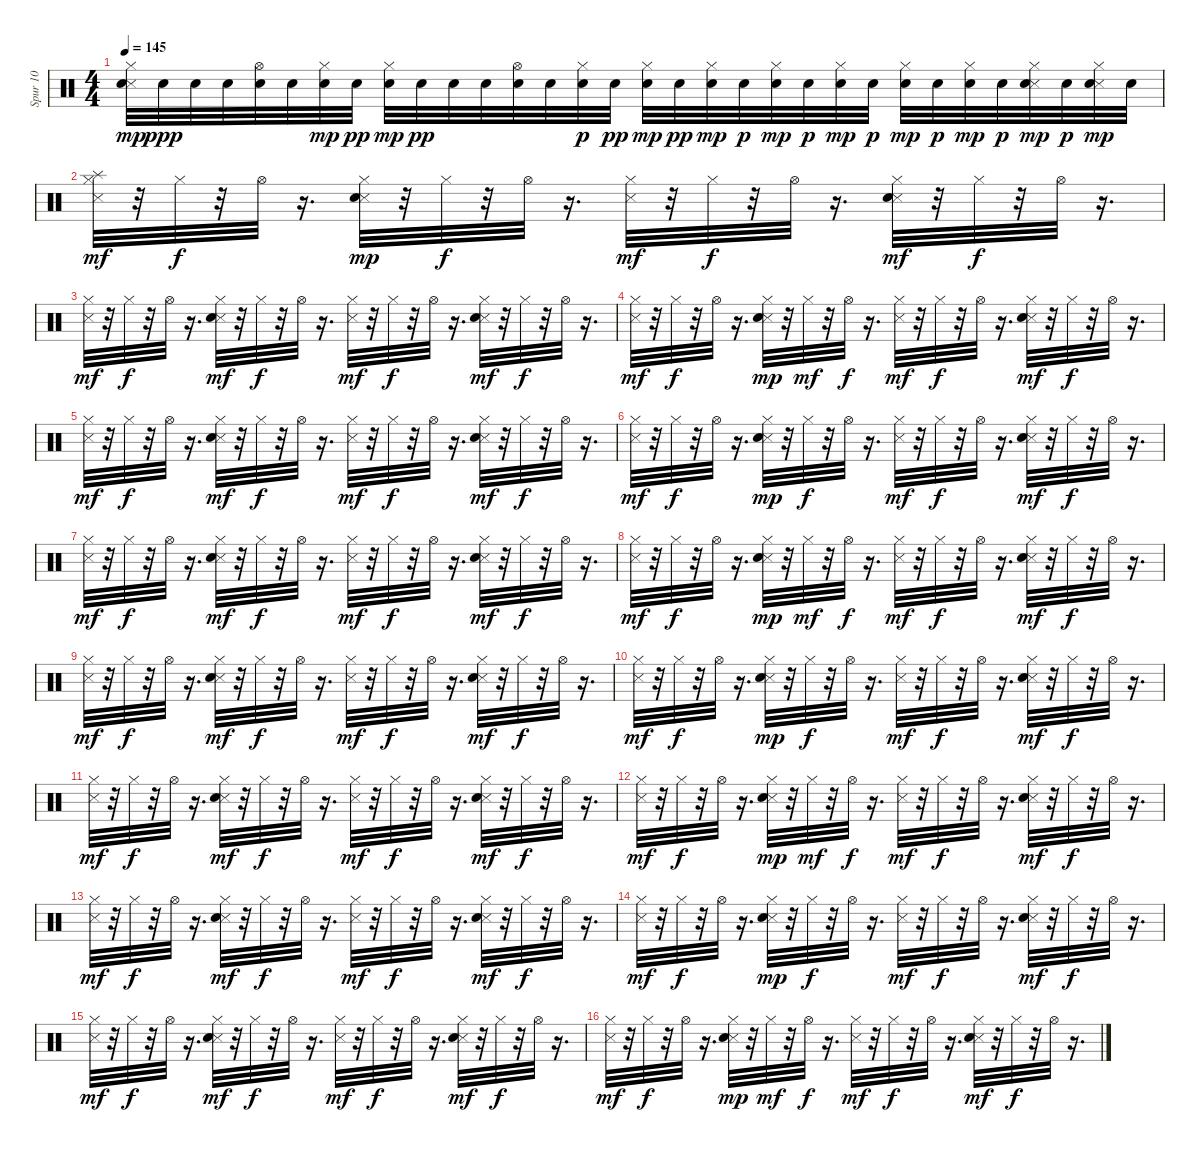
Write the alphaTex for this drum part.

\track ("Spur 10" "Spur 10") {instrument percussion}
\staff {score}
\articulation defaults
\ts (4 4)
\tempo 145
\clef neutral
\ks c
("Metronome (hit)" "Snare (hit) 2" "Hi-Hat (closed)").32{dy mp} "Snare (hit) 2".32{dy ppp} "Snare (hit) 2".32 "Snare (hit) 2".32 ("Snare (hit) 2" "Hi-Hat (open)").32 "Snare (hit) 2".32 ("Snare (hit) 2" "Hi-Hat (closed)").32{dy mp} "Snare (hit) 2".32{dy pp} ("Snare (hit) 2" "Hi-Hat (closed)").32{dy mp} "Snare (hit) 2".32{dy pp} "Snare (hit) 2".32 "Snare (hit) 2".32 ("Snare (hit) 2" "Hi-Hat (open)").32 "Snare (hit) 2".32 ("Snare (hit) 2" "Hi-Hat (closed)").32{dy p} "Snare (hit) 2".32{dy pp} ("Snare (hit) 2" "Hi-Hat (closed)").32{dy mp} "Snare (hit) 2".32{dy pp} ("Snare (hit) 2" "Hi-Hat (closed)").32{dy mp} "Snare (hit) 2".32{dy p} ("Snare (hit) 2" "Hi-Hat (closed)").32{dy mp} "Snare (hit) 2".32{dy p} ("Snare (hit) 2" "Hi-Hat (closed)").32{dy mp} "Snare (hit) 2".32{dy p} ("Snare (hit) 2" "Hi-Hat (closed)").32{dy mp} "Snare (hit) 2".32{dy p} ("Snare (hit) 2" "Hi-Hat (closed)").32{dy mp} "Snare (hit) 2".32{dy p} ("Metronome (hit)" "Snare (hit) 2" "Hi-Hat (closed)").32{dy mp} "Snare (hit) 2".32{dy p} ("Metronome (hit)" "Snare (hit) 2" "Hi-Hat (closed)").32{dy mp} "Snare (hit) 2".32 |
("Splash (hit)" "Metronome (hit)" "Hi-Hat (closed)").32{dy mf} r.32 "Hi-Hat (closed)".32{dy f} r.32 "Hi-Hat (open)".32 r.16{d} ("Metronome (hit)" "Snare (hit) 2" "Hi-Hat (closed)").32{dy mp} r.32 "Hi-Hat (closed)".32{dy f} r.32 "Hi-Hat (open)".32 r.16{d} ("Metronome (hit)" "Hi-Hat (closed)").32{dy mf} r.32 "Hi-Hat (closed)".32{dy f} r.32 "Hi-Hat (open)".32 r.16{d} ("Metronome (hit)" "Snare (hit) 2" "Hi-Hat (closed)").32{dy mf} r.32 "Hi-Hat (closed)".32{dy f} r.32 "Hi-Hat (open)".32 r.16{d} |
("Metronome (hit)" "Hi-Hat (closed)").32{dy mf} r.32 "Hi-Hat (closed)".32{dy f} r.32 "Hi-Hat (open)".32 r.16{d} ("Metronome (hit)" "Snare (hit) 2" "Hi-Hat (closed)").32{dy mf} r.32 "Hi-Hat (closed)".32{dy f} r.32 "Hi-Hat (open)".32 r.16{d} ("Metronome (hit)" "Hi-Hat (closed)").32{dy mf} r.32 "Hi-Hat (closed)".32{dy f} r.32 "Hi-Hat (open)".32 r.16{d} ("Metronome (hit)" "Snare (hit) 2" "Hi-Hat (closed)").32{dy mf} r.32 "Hi-Hat (closed)".32{dy f} r.32 "Hi-Hat (open)".32 r.16{d} |
("Metronome (hit)" "Hi-Hat (closed)").32{dy mf} r.32 "Hi-Hat (closed)".32{dy f} r.32 "Hi-Hat (open)".32 r.16{d} ("Metronome (hit)" "Snare (hit) 2" "Hi-Hat (closed)").32{dy mp} r.32 "Hi-Hat (closed)".32{dy mf} r.32 "Hi-Hat (open)".32{dy f} r.16{d} ("Metronome (hit)" "Hi-Hat (closed)").32{dy mf} r.32 "Hi-Hat (closed)".32{dy f} r.32 "Hi-Hat (open)".32 r.16{d} ("Metronome (hit)" "Snare (hit) 2" "Hi-Hat (closed)").32{dy mf} r.32 "Hi-Hat (closed)".32{dy f} r.32 "Hi-Hat (open)".32 r.16{d} |
("Metronome (hit)" "Hi-Hat (closed)").32{dy mf} r.32 "Hi-Hat (closed)".32{dy f} r.32 "Hi-Hat (open)".32 r.16{d} ("Metronome (hit)" "Snare (hit) 2" "Hi-Hat (closed)").32{dy mf} r.32 "Hi-Hat (closed)".32{dy f} r.32 "Hi-Hat (open)".32 r.16{d} ("Metronome (hit)" "Hi-Hat (closed)").32{dy mf} r.32 "Hi-Hat (closed)".32{dy f} r.32 "Hi-Hat (open)".32 r.16{d} ("Metronome (hit)" "Snare (hit) 2" "Hi-Hat (closed)").32{dy mf} r.32 "Hi-Hat (closed)".32{dy f} r.32 "Hi-Hat (open)".32 r.16{d} |
("Metronome (hit)" "Hi-Hat (closed)").32{dy mf} r.32 "Hi-Hat (closed)".32{dy f} r.32 "Hi-Hat (open)".32 r.16{d} ("Metronome (hit)" "Snare (hit) 2" "Hi-Hat (closed)").32{dy mp} r.32 "Hi-Hat (closed)".32{dy f} r.32 "Hi-Hat (open)".32 r.16{d} ("Metronome (hit)" "Hi-Hat (closed)").32{dy mf} r.32 "Hi-Hat (closed)".32{dy f} r.32 "Hi-Hat (open)".32 r.16{d} ("Metronome (hit)" "Snare (hit) 2" "Hi-Hat (closed)").32{dy mf} r.32 "Hi-Hat (closed)".32{dy f} r.32 "Hi-Hat (open)".32 r.16{d} |
("Metronome (hit)" "Hi-Hat (closed)").32{dy mf} r.32 "Hi-Hat (closed)".32{dy f} r.32 "Hi-Hat (open)".32 r.16{d} ("Metronome (hit)" "Snare (hit) 2" "Hi-Hat (closed)").32{dy mf} r.32 "Hi-Hat (closed)".32{dy f} r.32 "Hi-Hat (open)".32 r.16{d} ("Metronome (hit)" "Hi-Hat (closed)").32{dy mf} r.32 "Hi-Hat (closed)".32{dy f} r.32 "Hi-Hat (open)".32 r.16{d} ("Metronome (hit)" "Snare (hit) 2" "Hi-Hat (closed)").32{dy mf} r.32 "Hi-Hat (closed)".32{dy f} r.32 "Hi-Hat (open)".32 r.16{d} |
("Metronome (hit)" "Hi-Hat (closed)").32{dy mf} r.32 "Hi-Hat (closed)".32{dy f} r.32 "Hi-Hat (open)".32 r.16{d} ("Metronome (hit)" "Snare (hit) 2" "Hi-Hat (closed)").32{dy mp} r.32 "Hi-Hat (closed)".32{dy mf} r.32 "Hi-Hat (open)".32{dy f} r.16{d} ("Metronome (hit)" "Hi-Hat (closed)").32{dy mf} r.32 "Hi-Hat (closed)".32{dy f} r.32 "Hi-Hat (open)".32 r.16{d} ("Metronome (hit)" "Snare (hit) 2" "Hi-Hat (closed)").32{dy mf} r.32 "Hi-Hat (closed)".32{dy f} r.32 "Hi-Hat (open)".32 r.16{d} |
("Metronome (hit)" "Hi-Hat (closed)").32{dy mf} r.32 "Hi-Hat (closed)".32{dy f} r.32 "Hi-Hat (open)".32 r.16{d} ("Metronome (hit)" "Snare (hit) 2" "Hi-Hat (closed)").32{dy mf} r.32 "Hi-Hat (closed)".32{dy f} r.32 "Hi-Hat (open)".32 r.16{d} ("Metronome (hit)" "Hi-Hat (closed)").32{dy mf} r.32 "Hi-Hat (closed)".32{dy f} r.32 "Hi-Hat (open)".32 r.16{d} ("Metronome (hit)" "Snare (hit) 2" "Hi-Hat (closed)").32{dy mf} r.32 "Hi-Hat (closed)".32{dy f} r.32 "Hi-Hat (open)".32 r.16{d} |
("Metronome (hit)" "Hi-Hat (closed)").32{dy mf} r.32 "Hi-Hat (closed)".32{dy f} r.32 "Hi-Hat (open)".32 r.16{d} ("Metronome (hit)" "Snare (hit) 2" "Hi-Hat (closed)").32{dy mp} r.32 "Hi-Hat (closed)".32{dy f} r.32 "Hi-Hat (open)".32 r.16{d} ("Metronome (hit)" "Hi-Hat (closed)").32{dy mf} r.32 "Hi-Hat (closed)".32{dy f} r.32 "Hi-Hat (open)".32 r.16{d} ("Metronome (hit)" "Snare (hit) 2" "Hi-Hat (closed)").32{dy mf} r.32 "Hi-Hat (closed)".32{dy f} r.32 "Hi-Hat (open)".32 r.16{d} |
("Metronome (hit)" "Hi-Hat (closed)").32{dy mf} r.32 "Hi-Hat (closed)".32{dy f} r.32 "Hi-Hat (open)".32 r.16{d} ("Metronome (hit)" "Snare (hit) 2" "Hi-Hat (closed)").32{dy mf} r.32 "Hi-Hat (closed)".32{dy f} r.32 "Hi-Hat (open)".32 r.16{d} ("Metronome (hit)" "Hi-Hat (closed)").32{dy mf} r.32 "Hi-Hat (closed)".32{dy f} r.32 "Hi-Hat (open)".32 r.16{d} ("Metronome (hit)" "Snare (hit) 2" "Hi-Hat (closed)").32{dy mf} r.32 "Hi-Hat (closed)".32{dy f} r.32 "Hi-Hat (open)".32 r.16{d} |
("Metronome (hit)" "Hi-Hat (closed)").32{dy mf} r.32 "Hi-Hat (closed)".32{dy f} r.32 "Hi-Hat (open)".32 r.16{d} ("Metronome (hit)" "Snare (hit) 2" "Hi-Hat (closed)").32{dy mp} r.32 "Hi-Hat (closed)".32{dy mf} r.32 "Hi-Hat (open)".32{dy f} r.16{d} ("Metronome (hit)" "Hi-Hat (closed)").32{dy mf} r.32 "Hi-Hat (closed)".32{dy f} r.32 "Hi-Hat (open)".32 r.16{d} ("Metronome (hit)" "Snare (hit) 2" "Hi-Hat (closed)").32{dy mf} r.32 "Hi-Hat (closed)".32{dy f} r.32 "Hi-Hat (open)".32 r.16{d} |
("Metronome (hit)" "Hi-Hat (closed)").32{dy mf} r.32 "Hi-Hat (closed)".32{dy f} r.32 "Hi-Hat (open)".32 r.16{d} ("Metronome (hit)" "Snare (hit) 2" "Hi-Hat (closed)").32{dy mf} r.32 "Hi-Hat (closed)".32{dy f} r.32 "Hi-Hat (open)".32 r.16{d} ("Metronome (hit)" "Hi-Hat (closed)").32{dy mf} r.32 "Hi-Hat (closed)".32{dy f} r.32 "Hi-Hat (open)".32 r.16{d} ("Metronome (hit)" "Snare (hit) 2" "Hi-Hat (closed)").32{dy mf} r.32 "Hi-Hat (closed)".32{dy f} r.32 "Hi-Hat (open)".32 r.16{d} |
("Metronome (hit)" "Hi-Hat (closed)").32{dy mf} r.32 "Hi-Hat (closed)".32{dy f} r.32 "Hi-Hat (open)".32 r.16{d} ("Metronome (hit)" "Snare (hit) 2" "Hi-Hat (closed)").32{dy mp} r.32 "Hi-Hat (closed)".32{dy f} r.32 "Hi-Hat (open)".32 r.16{d} ("Metronome (hit)" "Hi-Hat (closed)").32{dy mf} r.32 "Hi-Hat (closed)".32{dy f} r.32 "Hi-Hat (open)".32 r.16{d} ("Metronome (hit)" "Snare (hit) 2" "Hi-Hat (closed)").32{dy mf} r.32 "Hi-Hat (closed)".32{dy f} r.32 "Hi-Hat (open)".32 r.16{d} |
("Metronome (hit)" "Hi-Hat (closed)").32{dy mf} r.32 "Hi-Hat (closed)".32{dy f} r.32 "Hi-Hat (open)".32 r.16{d} ("Metronome (hit)" "Snare (hit) 2" "Hi-Hat (closed)").32{dy mf} r.32 "Hi-Hat (closed)".32{dy f} r.32 "Hi-Hat (open)".32 r.16{d} ("Metronome (hit)" "Hi-Hat (closed)").32{dy mf} r.32 "Hi-Hat (closed)".32{dy f} r.32 "Hi-Hat (open)".32 r.16{d} ("Metronome (hit)" "Snare (hit) 2" "Hi-Hat (closed)").32{dy mf} r.32 "Hi-Hat (closed)".32{dy f} r.32 "Hi-Hat (open)".32 r.16{d} |
("Metronome (hit)" "Hi-Hat (closed)").32{dy mf} r.32 "Hi-Hat (closed)".32{dy f} r.32 "Hi-Hat (open)".32 r.16{d} ("Metronome (hit)" "Snare (hit) 2" "Hi-Hat (closed)").32{dy mp} r.32 "Hi-Hat (closed)".32{dy mf} r.32 "Hi-Hat (open)".32{dy f} r.16{d} ("Metronome (hit)" "Hi-Hat (closed)").32{dy mf} r.32 "Hi-Hat (closed)".32{dy f} r.32 "Hi-Hat (open)".32 r.16{d} ("Metronome (hit)" "Snare (hit) 2" "Hi-Hat (closed)").32{dy mf} r.32 "Hi-Hat (closed)".32{dy f} r.32 "Hi-Hat (open)".32 r.16{d}
